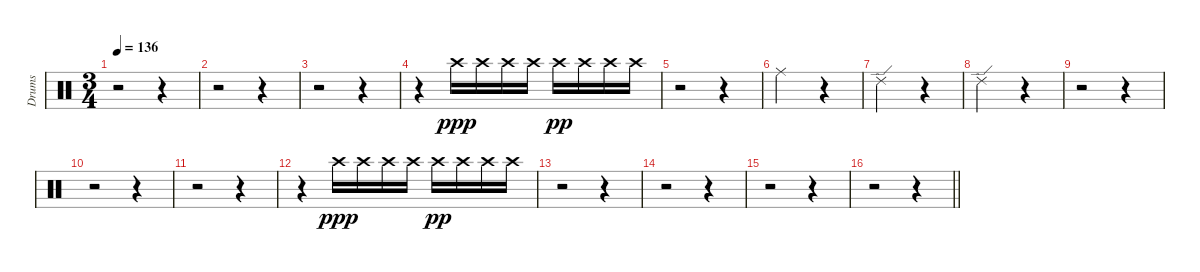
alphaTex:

\track ("Drums" "Drums") {instrument percussion}
\staff {score}
\articulation defaults
\ts (3 4)
\tempo 136
\clef neutral
\ks c
r.2{dy pp} r.4 |
r.2 r.4 |
r.2 r.4 |
r.4 "Crash high (hit)".16{dy ppp} "Crash high (hit)".16 "Crash high (hit)".16 "Crash high (hit)".16 "Crash high (hit)".16{dy pp} "Crash high (hit)".16 "Crash high (hit)".16 "Crash high (hit)".16 |
r.2 r.4 |
"Ride (middle)".2 r.4 |
"Ride (edge) 2".2 r.4 |
"Ride (edge) 2".2 r.4 |
r.2 r.4 |
r.2 r.4 |
r.2 r.4 |
r.4 "Crash high (hit)".16{dy ppp} "Crash high (hit)".16 "Crash high (hit)".16 "Crash high (hit)".16 "Crash high (hit)".16{dy pp} "Crash high (hit)".16 "Crash high (hit)".16 "Crash high (hit)".16 |
r.2 r.4 |
r.2 r.4 |
r.2 r.4 |
\barLineRight lightlight
r.2 r.4
